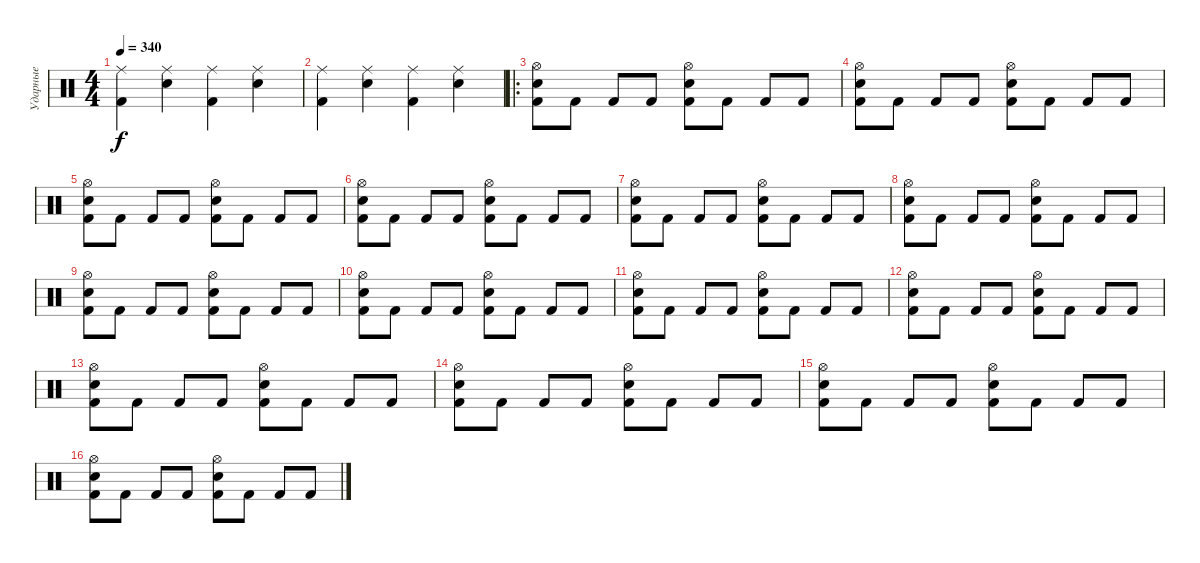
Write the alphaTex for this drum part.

\track ("Ударные" "Ударные") {instrument percussion}
\staff {score}
\articulation defaults
\ts (4 4)
\tempo 340
\clef neutral
\ks c
("Kick (hit) 2" "Ride (middle)").4{dy f} ("Electric Snare (hit)" "Ride (middle)").4 ("Kick (hit) 2" "Ride (middle)").4 ("Electric Snare (hit)" "Ride (middle)").4 |
("Kick (hit) 2" "Ride (middle)").4 ("Electric Snare (hit)" "Ride (middle)").4 ("Kick (hit) 2" "Ride (middle)").4 ("Electric Snare (hit)" "Ride (middle)").4 |
\ro
("Kick (hit) 2" "Electric Snare (hit)" "Hi-Hat (open)").8 "Kick (hit) 2".8 "Kick (hit) 2".8 "Kick (hit) 2".8 ("Kick (hit) 2" "Electric Snare (hit)" "Hi-Hat (open)").8 "Kick (hit) 2".8 "Kick (hit) 2".8 "Kick (hit) 2".8 |
("Kick (hit) 2" "Electric Snare (hit)" "Hi-Hat (open)").8 "Kick (hit) 2".8 "Kick (hit) 2".8 "Kick (hit) 2".8 ("Kick (hit) 2" "Electric Snare (hit)" "Hi-Hat (open)").8 "Kick (hit) 2".8 "Kick (hit) 2".8 "Kick (hit) 2".8 |
("Kick (hit) 2" "Electric Snare (hit)" "Hi-Hat (open)").8 "Kick (hit) 2".8 "Kick (hit) 2".8 "Kick (hit) 2".8 ("Kick (hit) 2" "Electric Snare (hit)" "Hi-Hat (open)").8 "Kick (hit) 2".8 "Kick (hit) 2".8 "Kick (hit) 2".8 |
("Kick (hit) 2" "Electric Snare (hit)" "Hi-Hat (open)").8 "Kick (hit) 2".8 "Kick (hit) 2".8 "Kick (hit) 2".8 ("Kick (hit) 2" "Electric Snare (hit)" "Hi-Hat (open)").8 "Kick (hit) 2".8 "Kick (hit) 2".8 "Kick (hit) 2".8 |
("Kick (hit) 2" "Electric Snare (hit)" "Hi-Hat (open)").8 "Kick (hit) 2".8 "Kick (hit) 2".8 "Kick (hit) 2".8 ("Kick (hit) 2" "Electric Snare (hit)" "Hi-Hat (open)").8 "Kick (hit) 2".8 "Kick (hit) 2".8 "Kick (hit) 2".8 |
("Kick (hit) 2" "Electric Snare (hit)" "Hi-Hat (open)").8 "Kick (hit) 2".8 "Kick (hit) 2".8 "Kick (hit) 2".8 ("Kick (hit) 2" "Electric Snare (hit)" "Hi-Hat (open)").8 "Kick (hit) 2".8 "Kick (hit) 2".8 "Kick (hit) 2".8 |
("Kick (hit) 2" "Electric Snare (hit)" "Hi-Hat (open)").8 "Kick (hit) 2".8 "Kick (hit) 2".8 "Kick (hit) 2".8 ("Kick (hit) 2" "Electric Snare (hit)" "Hi-Hat (open)").8 "Kick (hit) 2".8 "Kick (hit) 2".8 "Kick (hit) 2".8 |
("Kick (hit) 2" "Electric Snare (hit)" "Hi-Hat (open)").8 "Kick (hit) 2".8 "Kick (hit) 2".8 "Kick (hit) 2".8 ("Kick (hit) 2" "Electric Snare (hit)" "Hi-Hat (open)").8 "Kick (hit) 2".8 "Kick (hit) 2".8 "Kick (hit) 2".8 |
("Kick (hit) 2" "Electric Snare (hit)" "Hi-Hat (open)").8 "Kick (hit) 2".8 "Kick (hit) 2".8 "Kick (hit) 2".8 ("Kick (hit) 2" "Electric Snare (hit)" "Hi-Hat (open)").8 "Kick (hit) 2".8 "Kick (hit) 2".8 "Kick (hit) 2".8 |
("Kick (hit) 2" "Electric Snare (hit)" "Hi-Hat (open)").8 "Kick (hit) 2".8 "Kick (hit) 2".8 "Kick (hit) 2".8 ("Kick (hit) 2" "Electric Snare (hit)" "Hi-Hat (open)").8 "Kick (hit) 2".8 "Kick (hit) 2".8 "Kick (hit) 2".8 |
("Kick (hit) 2" "Electric Snare (hit)" "Hi-Hat (open)").8 "Kick (hit) 2".8 "Kick (hit) 2".8 "Kick (hit) 2".8 ("Kick (hit) 2" "Electric Snare (hit)" "Hi-Hat (open)").8 "Kick (hit) 2".8 "Kick (hit) 2".8 "Kick (hit) 2".8 |
("Kick (hit) 2" "Electric Snare (hit)" "Hi-Hat (open)").8 "Kick (hit) 2".8 "Kick (hit) 2".8 "Kick (hit) 2".8 ("Kick (hit) 2" "Electric Snare (hit)" "Hi-Hat (open)").8 "Kick (hit) 2".8 "Kick (hit) 2".8 "Kick (hit) 2".8 |
("Kick (hit) 2" "Electric Snare (hit)" "Hi-Hat (open)").8 "Kick (hit) 2".8 "Kick (hit) 2".8 "Kick (hit) 2".8 ("Kick (hit) 2" "Electric Snare (hit)" "Hi-Hat (open)").8 "Kick (hit) 2".8 "Kick (hit) 2".8 "Kick (hit) 2".8 |
("Kick (hit) 2" "Electric Snare (hit)" "Hi-Hat (open)").8 "Kick (hit) 2".8 "Kick (hit) 2".8 "Kick (hit) 2".8 ("Kick (hit) 2" "Electric Snare (hit)" "Hi-Hat (open)").8 "Kick (hit) 2".8 "Kick (hit) 2".8 "Kick (hit) 2".8
